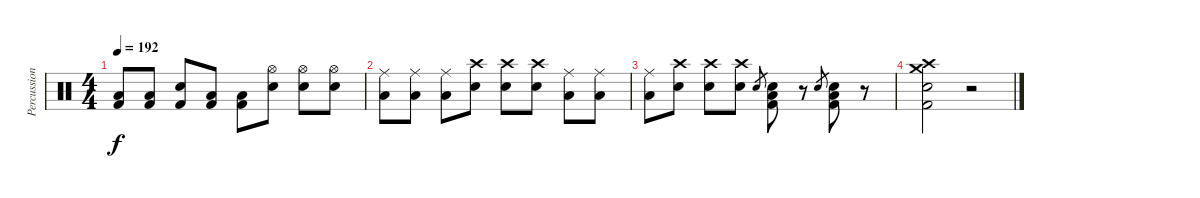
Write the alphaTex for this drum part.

\track ("Percussions" "Percussion") {instrument percussion}
\staff {score}
\articulation defaults
\ts (4 4)
\tempo 192
\clef neutral
\ks c
("Low Floor Tom (hit)" "Kick (hit) 2").8{dy f} ("Low Floor Tom (hit)" "Kick (hit) 2").8 ("Snare (hit) 2" "Kick (hit) 2").8 ("Low Floor Tom (hit)" "Kick (hit) 2").8 ("Low Floor Tom (hit)" "Kick (hit) 2").8 ("Snare (hit) 2" "Hi-Hat (open)").8 ("Snare (hit) 2" "Hi-Hat (open)").8 ("Snare (hit) 2" "Hi-Hat (open)").8 |
("Low Floor Tom (hit)" "Ride (middle)").8 ("Low Floor Tom (hit)" "Ride (middle)").8 ("Low Floor Tom (hit)" "Ride (middle)").8 ("Snare (hit) 2" "Crash high (hit)").8 ("Snare (hit) 2" "Crash high (hit)").8 ("Snare (hit) 2" "Crash high (hit)").8 ("Low Floor Tom (hit)" "Ride (middle)").8 ("Low Floor Tom (hit)" "Ride (middle)").8 |
("Low Floor Tom (hit)" "Ride (middle)").8 ("Snare (hit) 2" "Crash high (hit)").8 ("Snare (hit) 2" "Crash high (hit)").8 ("Snare (hit) 2" "Crash high (hit)").8 "Snare (hit) 2".8{gr} ("Snare (hit) 2" "Low Floor Tom (hit)" "Kick (hit) 2").8 r.8 "Snare (hit) 2".8{gr} ("Snare (hit) 2" "Low Floor Tom (hit)" "Kick (hit) 2").8 r.8 |
("Snare (hit) 2" "Crash medium (hit)" "Crash high (hit)" "Kick (hit) 2").2 r.2
